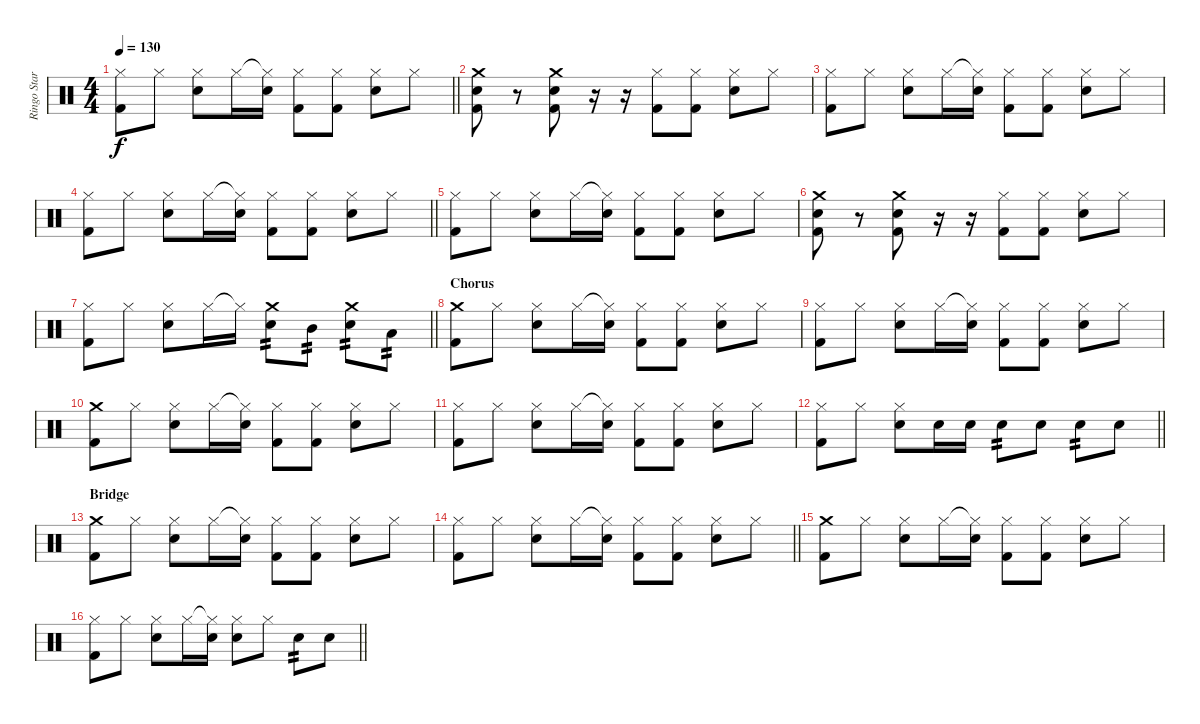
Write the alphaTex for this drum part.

\track ("Ringo Starr" "Ringo Star") {instrument percussion}
\staff {score}
\articulation defaults
\ts (4 4)
\tempo 130
\clef neutral
\barLineRight lightlight
\ks c
("Hi-Hat (closed)" "Kick (hit) 2").8{dy f} "Hi-Hat (closed)".8 ("Hi-Hat (closed)" "Snare (hit) 2").8 "Hi-Hat (closed)".16 ("Hi-Hat (closed)"{t} "Snare (hit) 2").16 ("Hi-Hat (closed)" "Kick (hit) 2").8 ("Hi-Hat (closed)" "Kick (hit) 2").8 ("Hi-Hat (closed)" "Snare (hit) 2").8 "Hi-Hat (closed)".8 |
("Crash medium (hit)" "Snare (hit) 2" "Kick (hit) 2").8 r.8 ("Crash medium (hit)" "Snare (hit) 2" "Kick (hit) 2").8 r.16 r.16 ("Hi-Hat (closed)" "Kick (hit) 2").8 ("Hi-Hat (closed)" "Kick (hit) 2").8 ("Hi-Hat (closed)" "Snare (hit) 2").8 "Hi-Hat (closed)".8 |
("Hi-Hat (closed)" "Kick (hit) 2").8 "Hi-Hat (closed)".8 ("Hi-Hat (closed)" "Snare (hit) 2").8 "Hi-Hat (closed)".16 ("Hi-Hat (closed)"{t} "Snare (hit) 2").16 ("Hi-Hat (closed)" "Kick (hit) 2").8 ("Hi-Hat (closed)" "Kick (hit) 2").8 ("Hi-Hat (closed)" "Snare (hit) 2").8 "Hi-Hat (closed)".8 |
\barLineRight lightlight
("Hi-Hat (closed)" "Kick (hit) 2").8 "Hi-Hat (closed)".8 ("Hi-Hat (closed)" "Snare (hit) 2").8 "Hi-Hat (closed)".16 ("Hi-Hat (closed)"{t} "Snare (hit) 2").16 ("Hi-Hat (closed)" "Kick (hit) 2").8 ("Hi-Hat (closed)" "Kick (hit) 2").8 ("Hi-Hat (closed)" "Snare (hit) 2").8 "Hi-Hat (closed)".8 |
("Hi-Hat (closed)" "Kick (hit) 2").8 "Hi-Hat (closed)".8 ("Hi-Hat (closed)" "Snare (hit) 2").8 "Hi-Hat (closed)".16 ("Hi-Hat (closed)"{t} "Snare (hit) 2").16 ("Hi-Hat (closed)" "Kick (hit) 2").8 ("Hi-Hat (closed)" "Kick (hit) 2").8 ("Hi-Hat (closed)" "Snare (hit) 2").8 "Hi-Hat (closed)".8 |
("Crash medium (hit)" "Snare (hit) 2" "Kick (hit) 2").8 r.8 ("Crash medium (hit)" "Snare (hit) 2" "Kick (hit) 2").8 r.16 r.16 ("Hi-Hat (closed)" "Kick (hit) 2").8 ("Hi-Hat (closed)" "Kick (hit) 2").8 ("Hi-Hat (closed)" "Snare (hit) 2").8 "Hi-Hat (closed)".8 |
\barLineRight lightlight
("Hi-Hat (closed)" "Kick (hit) 2").8 "Hi-Hat (closed)".8 ("Hi-Hat (closed)" "Snare (hit) 2").8 "Hi-Hat (closed)".16 "Hi-Hat (closed)"{t}.16 ("Crash medium (hit)" "Snare (hit) 2").8{tp 2} "Mid Tom (hit)".8{tp 2} ("Crash medium (hit)" "Snare (hit) 2").8{tp 2} "Low Tom (hit)".8{tp 2} |
\section ("" "Chorus")
("Crash medium (hit)" "Kick (hit) 2").8 "Hi-Hat (closed)".8 ("Hi-Hat (closed)" "Snare (hit) 2").8 "Hi-Hat (closed)".16 ("Hi-Hat (closed)"{t} "Snare (hit) 2").16 ("Hi-Hat (closed)" "Kick (hit) 2").8 ("Hi-Hat (closed)" "Kick (hit) 2").8 ("Hi-Hat (closed)" "Snare (hit) 2").8 "Hi-Hat (closed)".8 |
("Hi-Hat (closed)" "Kick (hit) 2").8 "Hi-Hat (closed)".8 ("Hi-Hat (closed)" "Snare (hit) 2").8 "Hi-Hat (closed)".16 ("Hi-Hat (closed)"{t} "Snare (hit) 2").16 ("Hi-Hat (closed)" "Kick (hit) 2").8 ("Hi-Hat (closed)" "Kick (hit) 2").8 ("Hi-Hat (closed)" "Snare (hit) 2").8 "Hi-Hat (closed)".8 |
("Crash medium (hit)" "Kick (hit) 2").8 "Hi-Hat (closed)".8 ("Hi-Hat (closed)" "Snare (hit) 2").8 "Hi-Hat (closed)".16 ("Hi-Hat (closed)"{t} "Snare (hit) 2").16 ("Hi-Hat (closed)" "Kick (hit) 2").8 ("Hi-Hat (closed)" "Kick (hit) 2").8 ("Hi-Hat (closed)" "Snare (hit) 2").8 "Hi-Hat (closed)".8 |
("Hi-Hat (closed)" "Kick (hit) 2").8 "Hi-Hat (closed)".8 ("Hi-Hat (closed)" "Snare (hit) 2").8 "Hi-Hat (closed)".16 ("Hi-Hat (closed)"{t} "Snare (hit) 2").16 ("Hi-Hat (closed)" "Kick (hit) 2").8 ("Hi-Hat (closed)" "Kick (hit) 2").8 ("Hi-Hat (closed)" "Snare (hit) 2").8 "Hi-Hat (closed)".8 |
\barLineRight lightlight
("Hi-Hat (closed)" "Kick (hit) 2").8 "Hi-Hat (closed)".8 ("Hi-Hat (closed)" "Snare (hit) 2").8 "Snare (hit) 2".16 "Snare (hit) 2".16 "Snare (hit) 2".8{tp 2} "Snare (hit) 2".8 "Snare (hit) 2".8{tp 2} "Snare (hit) 2".8 |
\section ("" "Bridge")
("Crash medium (hit)" "Kick (hit) 2").8 "Hi-Hat (closed)".8 ("Hi-Hat (closed)" "Snare (hit) 2").8 "Hi-Hat (closed)".16 ("Hi-Hat (closed)"{t} "Snare (hit) 2").16 ("Hi-Hat (closed)" "Kick (hit) 2").8 ("Hi-Hat (closed)" "Kick (hit) 2").8 ("Hi-Hat (closed)" "Snare (hit) 2").8 "Hi-Hat (closed)".8 |
\barLineRight lightlight
("Hi-Hat (closed)" "Kick (hit) 2").8 "Hi-Hat (closed)".8 ("Hi-Hat (closed)" "Snare (hit) 2").8 "Hi-Hat (closed)".16 ("Hi-Hat (closed)"{t} "Snare (hit) 2").16 ("Hi-Hat (closed)" "Kick (hit) 2").8 ("Hi-Hat (closed)" "Kick (hit) 2").8 ("Hi-Hat (closed)" "Snare (hit) 2").8 "Hi-Hat (closed)".8 |
("Crash medium (hit)" "Kick (hit) 2").8 "Hi-Hat (closed)".8 ("Hi-Hat (closed)" "Snare (hit) 2").8 "Hi-Hat (closed)".16 ("Hi-Hat (closed)"{t} "Snare (hit) 2").16 ("Hi-Hat (closed)" "Kick (hit) 2").8 ("Hi-Hat (closed)" "Kick (hit) 2").8 ("Hi-Hat (closed)" "Snare (hit) 2").8 "Hi-Hat (closed)".8 |
\barLineRight lightlight
("Hi-Hat (closed)" "Kick (hit) 2").8 "Hi-Hat (closed)".8 ("Hi-Hat (closed)" "Snare (hit) 2").8 "Hi-Hat (closed)".16 ("Hi-Hat (closed)"{t} "Snare (hit) 2").16 ("Hi-Hat (closed)" "Snare (hit) 2").8 "Hi-Hat (closed)".8 "Snare (hit) 2".8{tp 2} "Snare (hit) 2".8
